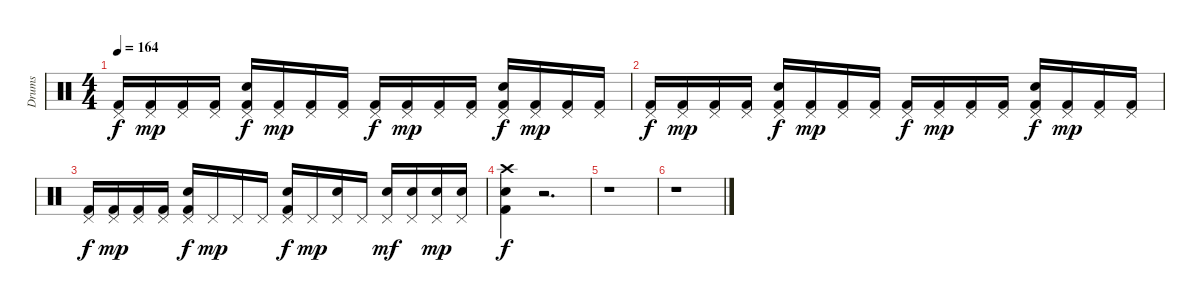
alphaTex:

\track ("Drums" "Drums") {instrument percussion}
\staff {score}
\articulation defaults
\ts (4 4)
\tempo 164
\clef neutral
\ks c
("Pedal Hi-Hat (hit)" "Kick (hit) 2").16{dy f} ("Pedal Hi-Hat (hit)" "Kick (hit) 2").16{dy mp} ("Pedal Hi-Hat (hit)" "Kick (hit) 2").16 ("Pedal Hi-Hat (hit)" "Kick (hit) 2").16 ("Pedal Hi-Hat (hit)" "Snare (hit) 2" "Kick (hit) 2").16{dy f} ("Pedal Hi-Hat (hit)" "Kick (hit) 2").16{dy mp} ("Pedal Hi-Hat (hit)" "Kick (hit) 2").16 ("Pedal Hi-Hat (hit)" "Kick (hit) 2").16 ("Pedal Hi-Hat (hit)" "Kick (hit) 2").16{dy f} ("Pedal Hi-Hat (hit)" "Kick (hit) 2").16{dy mp} ("Pedal Hi-Hat (hit)" "Kick (hit) 2").16 ("Pedal Hi-Hat (hit)" "Kick (hit) 2").16 ("Pedal Hi-Hat (hit)" "Snare (hit) 2" "Kick (hit) 2").16{dy f} ("Pedal Hi-Hat (hit)" "Kick (hit) 2").16{dy mp} ("Pedal Hi-Hat (hit)" "Kick (hit) 2").16 ("Pedal Hi-Hat (hit)" "Kick (hit) 2").16 |
("Pedal Hi-Hat (hit)" "Kick (hit) 2").16{dy f} ("Pedal Hi-Hat (hit)" "Kick (hit) 2").16{dy mp} ("Pedal Hi-Hat (hit)" "Kick (hit) 2").16 ("Pedal Hi-Hat (hit)" "Kick (hit) 2").16 ("Pedal Hi-Hat (hit)" "Snare (hit) 2" "Kick (hit) 2").16{dy f} ("Pedal Hi-Hat (hit)" "Kick (hit) 2").16{dy mp} ("Pedal Hi-Hat (hit)" "Kick (hit) 2").16 ("Pedal Hi-Hat (hit)" "Kick (hit) 2").16 ("Pedal Hi-Hat (hit)" "Kick (hit) 2").16{dy f} ("Pedal Hi-Hat (hit)" "Kick (hit) 2").16{dy mp} ("Pedal Hi-Hat (hit)" "Kick (hit) 2").16 ("Pedal Hi-Hat (hit)" "Kick (hit) 2").16 ("Pedal Hi-Hat (hit)" "Snare (hit) 2" "Kick (hit) 2").16{dy f} ("Pedal Hi-Hat (hit)" "Kick (hit) 2").16{dy mp} ("Pedal Hi-Hat (hit)" "Kick (hit) 2").16 ("Pedal Hi-Hat (hit)" "Kick (hit) 2").16 |
("Pedal Hi-Hat (hit)" "Kick (hit) 2").16{dy f} ("Pedal Hi-Hat (hit)" "Kick (hit) 2").16{dy mp} ("Pedal Hi-Hat (hit)" "Kick (hit) 2").16 ("Pedal Hi-Hat (hit)" "Kick (hit) 2").16 ("Pedal Hi-Hat (hit)" "Snare (hit) 2" "Kick (hit) 2").16{dy f} "Pedal Hi-Hat (hit)".16{dy mp} "Pedal Hi-Hat (hit)".16 "Pedal Hi-Hat (hit)".16 ("Pedal Hi-Hat (hit)" "Snare (hit) 2" "Kick (hit) 2").16{dy f} "Pedal Hi-Hat (hit)".16{dy mp} ("Pedal Hi-Hat (hit)" "Snare (hit) 2").16 "Pedal Hi-Hat (hit)".16 ("Pedal Hi-Hat (hit)" "Snare (hit) 2").16{dy mf} ("Pedal Hi-Hat (hit)" "Snare (hit) 2").16 ("Pedal Hi-Hat (hit)" "Snare (hit) 2").16{dy mp} ("Pedal Hi-Hat (hit)" "Snare (hit) 2").16 |
("Crash high (hit)" "Snare (hit) 2" "Kick (hit) 2").4{dy f} r.2{d} |
r.1 |
r.1
